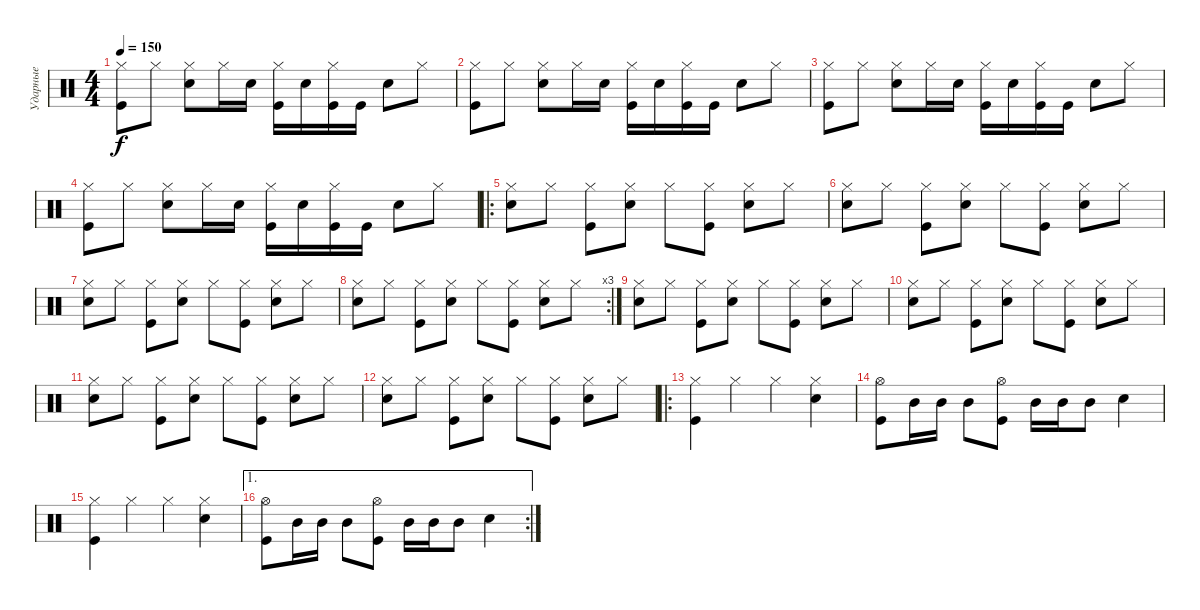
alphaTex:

\track ("Ударные" "Ударные") {instrument percussion}
\staff {score}
\articulation defaults
\ts (4 4)
\tempo 150
\clef neutral
\ks c
("Hi-Hat (closed)" "Kick (hit)").8{dy f} "Hi-Hat (closed)".8 ("Hi-Hat (closed)" "Snare (hit) 2").8 "Hi-Hat (closed)".16 "Snare (hit) 2".16 ("Kick (hit)" "Hi-Hat (closed)").16 "Snare (hit) 2".16 ("Kick (hit)" "Hi-Hat (closed)").16 "Kick (hit)".16 "Snare (hit) 2".8 "Hi-Hat (closed)".8 |
("Hi-Hat (closed)" "Kick (hit)").8 "Hi-Hat (closed)".8 ("Hi-Hat (closed)" "Snare (hit) 2").8 "Hi-Hat (closed)".16 "Snare (hit) 2".16 ("Kick (hit)" "Hi-Hat (closed)").16 "Snare (hit) 2".16 ("Kick (hit)" "Hi-Hat (closed)").16 "Kick (hit)".16 "Snare (hit) 2".8 "Hi-Hat (closed)".8 |
("Hi-Hat (closed)" "Kick (hit)").8 "Hi-Hat (closed)".8 ("Hi-Hat (closed)" "Snare (hit) 2").8 "Hi-Hat (closed)".16 "Snare (hit) 2".16 ("Kick (hit)" "Hi-Hat (closed)").16 "Snare (hit) 2".16 ("Kick (hit)" "Hi-Hat (closed)").16 "Kick (hit)".16 "Snare (hit) 2".8 "Hi-Hat (closed)".8 |
("Hi-Hat (closed)" "Kick (hit)").8 "Hi-Hat (closed)".8 ("Hi-Hat (closed)" "Snare (hit) 2").8 "Hi-Hat (closed)".16 "Snare (hit) 2".16 ("Kick (hit)" "Hi-Hat (closed)").16 "Snare (hit) 2".16 ("Kick (hit)" "Hi-Hat (closed)").16 "Kick (hit)".16 "Snare (hit) 2".8 "Hi-Hat (closed)".8 |
\ro
("Hi-Hat (closed)" "Snare (hit) 2").8 "Hi-Hat (closed)".8 ("Hi-Hat (closed)" "Kick (hit)").8 ("Hi-Hat (closed)" "Snare (hit) 2").8 "Hi-Hat (closed)".8 ("Hi-Hat (closed)" "Kick (hit)").8 ("Hi-Hat (closed)" "Snare (hit) 2").8 "Hi-Hat (closed)".8 |
("Hi-Hat (closed)" "Snare (hit) 2").8 "Hi-Hat (closed)".8 ("Hi-Hat (closed)" "Kick (hit)").8 ("Hi-Hat (closed)" "Snare (hit) 2").8 "Hi-Hat (closed)".8 ("Hi-Hat (closed)" "Kick (hit)").8 ("Hi-Hat (closed)" "Snare (hit) 2").8 "Hi-Hat (closed)".8 |
("Hi-Hat (closed)" "Snare (hit) 2").8 "Hi-Hat (closed)".8 ("Hi-Hat (closed)" "Kick (hit)").8 ("Hi-Hat (closed)" "Snare (hit) 2").8 "Hi-Hat (closed)".8 ("Hi-Hat (closed)" "Kick (hit)").8 ("Hi-Hat (closed)" "Snare (hit) 2").8 "Hi-Hat (closed)".8 |
\rc 3
("Hi-Hat (closed)" "Snare (hit) 2").8 "Hi-Hat (closed)".8 ("Hi-Hat (closed)" "Kick (hit)").8 ("Hi-Hat (closed)" "Snare (hit) 2").8 "Hi-Hat (closed)".8 ("Hi-Hat (closed)" "Kick (hit)").8 ("Hi-Hat (closed)" "Snare (hit) 2").8 "Hi-Hat (closed)".8 |
("Hi-Hat (closed)" "Snare (hit) 2").8 "Hi-Hat (closed)".8 ("Hi-Hat (closed)" "Kick (hit)").8 ("Hi-Hat (closed)" "Snare (hit) 2").8 "Hi-Hat (closed)".8 ("Hi-Hat (closed)" "Kick (hit)").8 ("Hi-Hat (closed)" "Snare (hit) 2").8 "Hi-Hat (closed)".8 |
("Hi-Hat (closed)" "Snare (hit) 2").8 "Hi-Hat (closed)".8 ("Hi-Hat (closed)" "Kick (hit)").8 ("Hi-Hat (closed)" "Snare (hit) 2").8 "Hi-Hat (closed)".8 ("Hi-Hat (closed)" "Kick (hit)").8 ("Hi-Hat (closed)" "Snare (hit) 2").8 "Hi-Hat (closed)".8 |
("Hi-Hat (closed)" "Snare (hit) 2").8 "Hi-Hat (closed)".8 ("Hi-Hat (closed)" "Kick (hit)").8 ("Hi-Hat (closed)" "Snare (hit) 2").8 "Hi-Hat (closed)".8 ("Hi-Hat (closed)" "Kick (hit)").8 ("Hi-Hat (closed)" "Snare (hit) 2").8 "Hi-Hat (closed)".8 |
("Hi-Hat (closed)" "Snare (hit) 2").8 "Hi-Hat (closed)".8 ("Hi-Hat (closed)" "Kick (hit)").8 ("Hi-Hat (closed)" "Snare (hit) 2").8 "Hi-Hat (closed)".8 ("Hi-Hat (closed)" "Kick (hit)").8 ("Hi-Hat (closed)" "Snare (hit) 2").8 "Hi-Hat (closed)".8 |
\ro
("Hi-Hat (closed)" "Kick (hit)").4 "Hi-Hat (closed)".4 "Hi-Hat (closed)".4 ("Hi-Hat (closed)" "Snare (hit) 2").4 |
("Hi-Hat (open)" "Kick (hit)").8 "Mid Tom (hit)".16 "Mid Tom (hit)".16 "Mid Tom (hit)".8 ("Kick (hit)" "Hi-Hat (open)").8 "Mid Tom (hit)".16 "Mid Tom (hit)".16 "Mid Tom (hit)".8 "Snare (hit) 2".4 |
("Hi-Hat (closed)" "Kick (hit)").4 "Hi-Hat (closed)".4 "Hi-Hat (closed)".4 ("Hi-Hat (closed)" "Snare (hit) 2").4 |
\ae 1
\rc 2
("Kick (hit)" "Hi-Hat (open)").8 "Mid Tom (hit)".16 "Mid Tom (hit)".16 "Mid Tom (hit)".8 ("Kick (hit)" "Hi-Hat (open)").8 "Mid Tom (hit)".16 "Mid Tom (hit)".16 "Mid Tom (hit)".8 "Snare (hit) 2".4
